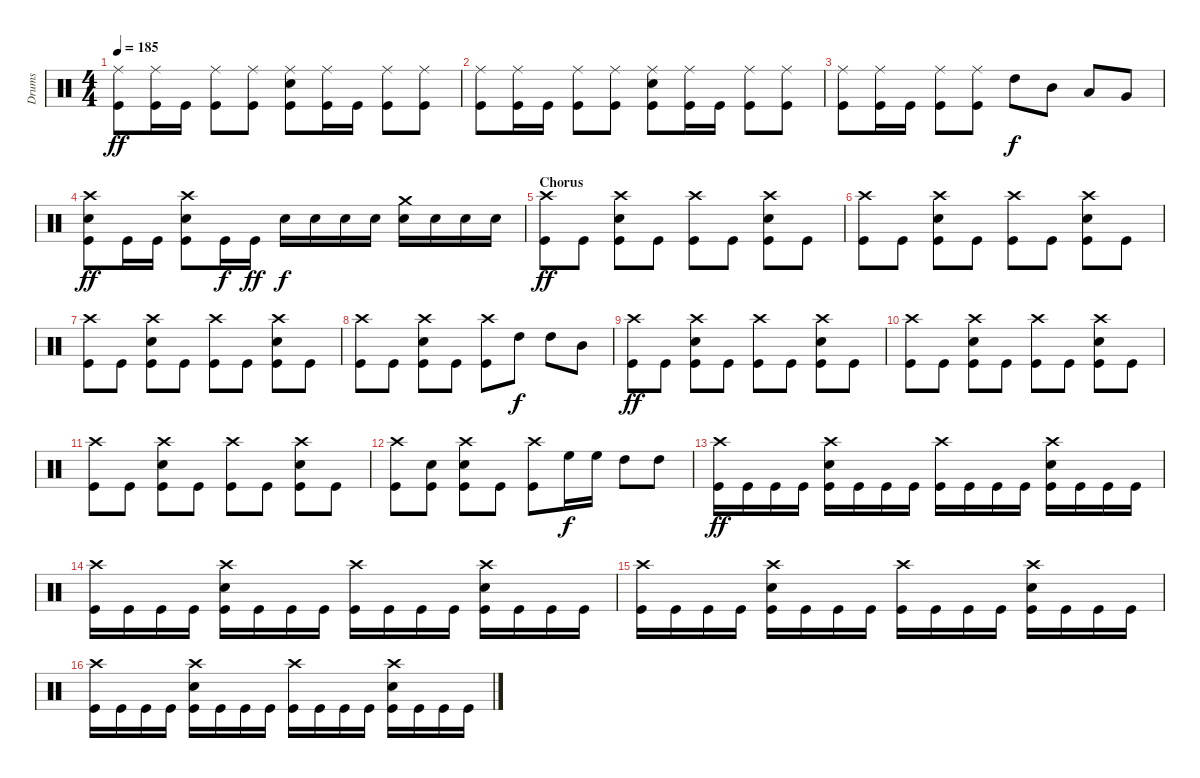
\track ("Drums" "Drums") {instrument percussion}
\staff {score}
\articulation defaults
\ts (4 4)
\tempo 185
\clef neutral
\ks c
("Ride (middle)" "Kick (hit)").8{dy ff} ("Ride (middle)" "Kick (hit)").16 "Kick (hit)".16 ("Ride (middle)" "Kick (hit)").8 ("Ride (middle)" "Kick (hit)").8 ("Ride (middle)" "Snare (hit) 2" "Kick (hit)").8 ("Ride (middle)" "Kick (hit)").16 "Kick (hit)".16 ("Ride (middle)" "Kick (hit)").8 ("Ride (middle)" "Kick (hit)").8 |
("Ride (middle)" "Kick (hit)").8 ("Ride (middle)" "Kick (hit)").16 "Kick (hit)".16 ("Ride (middle)" "Kick (hit)").8 ("Ride (middle)" "Kick (hit)").8 ("Ride (middle)" "Snare (hit) 2" "Kick (hit)").8 ("Ride (middle)" "Kick (hit)").16 "Kick (hit)".16 ("Ride (middle)" "Kick (hit)").8 ("Ride (middle)" "Kick (hit)").8 |
("Ride (middle)" "Kick (hit)").8 ("Ride (middle)" "Kick (hit)").16 "Kick (hit)".16 ("Ride (middle)" "Kick (hit)").8 ("Ride (middle)" "Kick (hit)").8 "High Tom (hit)".8{dy f} "Mid Tom (hit)".8 "Low Tom (hit)".8 "Very Low Tom (hit)".8 |
("Crash high (hit)" "Snare (hit) 2" "Kick (hit)").8{dy ff} "Kick (hit)".16 "Kick (hit)".16 ("Crash high (hit)" "Snare (hit) 2" "Kick (hit)").8 "Kick (hit)".16{dy f} "Kick (hit)".16{dy ff} "Snare (hit) 2".16{dy f} "Snare (hit) 2".16 "Snare (hit) 2".16 "Snare (hit) 2".16 ("Crash medium (hit)" "Snare (hit) 2").16 "Snare (hit) 2".16 "Snare (hit) 2".16 "Snare (hit) 2".16 |
\section ("" "Chorus")
("Crash high (hit)" "Kick (hit)").8{dy ff} "Kick (hit)".8 ("Crash high (hit)" "Snare (hit) 2" "Kick (hit)").8 "Kick (hit)".8 ("Crash high (hit)" "Kick (hit)").8 "Kick (hit)".8 ("Crash high (hit)" "Snare (hit) 2" "Kick (hit)").8 "Kick (hit)".8 |
("Crash high (hit)" "Kick (hit)").8 "Kick (hit)".8 ("Crash high (hit)" "Snare (hit) 2" "Kick (hit)").8 "Kick (hit)".8 ("Crash high (hit)" "Kick (hit)").8 "Kick (hit)".8 ("Crash high (hit)" "Snare (hit) 2" "Kick (hit)").8 "Kick (hit)".8 |
("Crash high (hit)" "Kick (hit)").8 "Kick (hit)".8 ("Crash high (hit)" "Snare (hit) 2" "Kick (hit)").8 "Kick (hit)".8 ("Crash high (hit)" "Kick (hit)").8 "Kick (hit)".8 ("Crash high (hit)" "Snare (hit) 2" "Kick (hit)").8 "Kick (hit)".8 |
("Crash high (hit)" "Kick (hit)").8 "Kick (hit)".8 ("Crash high (hit)" "Snare (hit) 2" "Kick (hit)").8 "Kick (hit)".8 ("Crash high (hit)" "Kick (hit)").8 "High Tom (hit)".8{dy f} "High Tom (hit)".8 "Mid Tom (hit)".8 |
("Crash high (hit)" "Kick (hit)").8{dy ff} "Kick (hit)".8 ("Crash high (hit)" "Snare (hit) 2" "Kick (hit)").8 "Kick (hit)".8 ("Crash high (hit)" "Kick (hit)").8 "Kick (hit)".8 ("Crash high (hit)" "Snare (hit) 2" "Kick (hit)").8 "Kick (hit)".8 |
("Crash high (hit)" "Kick (hit)").8 "Kick (hit)".8 ("Crash high (hit)" "Snare (hit) 2" "Kick (hit)").8 "Kick (hit)".8 ("Crash high (hit)" "Kick (hit)").8 "Kick (hit)".8 ("Crash high (hit)" "Snare (hit) 2" "Kick (hit)").8 "Kick (hit)".8 |
("Crash high (hit)" "Kick (hit)").8 "Kick (hit)".8 ("Crash high (hit)" "Snare (hit) 2" "Kick (hit)").8 "Kick (hit)".8 ("Crash high (hit)" "Kick (hit)").8 "Kick (hit)".8 ("Crash high (hit)" "Snare (hit) 2" "Kick (hit)").8 "Kick (hit)".8 |
("Crash high (hit)" "Kick (hit)").8 ("Snare (hit) 2" "Kick (hit)").8 ("Crash high (hit)" "Snare (hit) 2" "Kick (hit)").8 "Kick (hit)".8 ("Crash high (hit)" "Kick (hit)").8 "High Floor Tom (hit)".16{dy f} "High Floor Tom (hit)".16 "High Tom (hit)".8 "High Tom (hit)".8 |
("Crash high (hit)" "Kick (hit)").16{dy ff} "Kick (hit)".16 "Kick (hit)".16 "Kick (hit)".16 ("Crash high (hit)" "Snare (hit) 2" "Kick (hit)").16 "Kick (hit)".16 "Kick (hit)".16 "Kick (hit)".16 ("Crash high (hit)" "Kick (hit)").16 "Kick (hit)".16 "Kick (hit)".16 "Kick (hit)".16 ("Crash high (hit)" "Snare (hit) 2" "Kick (hit)").16 "Kick (hit)".16 "Kick (hit)".16 "Kick (hit)".16 |
("Crash high (hit)" "Kick (hit)").16 "Kick (hit)".16 "Kick (hit)".16 "Kick (hit)".16 ("Crash high (hit)" "Snare (hit) 2" "Kick (hit)").16 "Kick (hit)".16 "Kick (hit)".16 "Kick (hit)".16 ("Crash high (hit)" "Kick (hit)").16 "Kick (hit)".16 "Kick (hit)".16 "Kick (hit)".16 ("Crash high (hit)" "Snare (hit) 2" "Kick (hit)").16 "Kick (hit)".16 "Kick (hit)".16 "Kick (hit)".16 |
("Crash high (hit)" "Kick (hit)").16 "Kick (hit)".16 "Kick (hit)".16 "Kick (hit)".16 ("Crash high (hit)" "Snare (hit) 2" "Kick (hit)").16 "Kick (hit)".16 "Kick (hit)".16 "Kick (hit)".16 ("Crash high (hit)" "Kick (hit)").16 "Kick (hit)".16 "Kick (hit)".16 "Kick (hit)".16 ("Crash high (hit)" "Snare (hit) 2" "Kick (hit)").16 "Kick (hit)".16 "Kick (hit)".16 "Kick (hit)".16 |
("Crash high (hit)" "Kick (hit)").16 "Kick (hit)".16 "Kick (hit)".16 "Kick (hit)".16 ("Crash high (hit)" "Snare (hit) 2" "Kick (hit)").16 "Kick (hit)".16 "Kick (hit)".16 "Kick (hit)".16 ("Crash high (hit)" "Kick (hit)").16 "Kick (hit)".16 "Kick (hit)".16 "Kick (hit)".16 ("Crash high (hit)" "Snare (hit) 2" "Kick (hit)").16 "Kick (hit)".16 "Kick (hit)".16 "Kick (hit)".16
